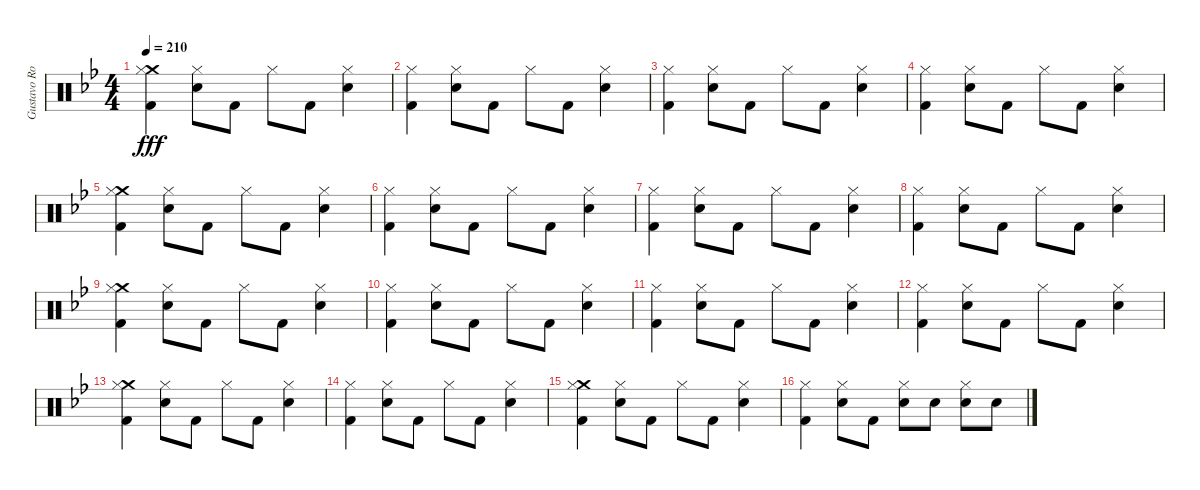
\track ("Gustavo Rowek" "Gustavo Ro") {instrument percussion}
\staff {score}
\articulation defaults
\ts (4 4)
\tempo 210
\clef neutral
\ks gminor
("Crash medium (hit)" "Hi-Hat (closed)" "Kick (hit) 2").4{dy fff} ("Hi-Hat (closed)" "Snare (hit) 2").8 "Kick (hit) 2".8 "Hi-Hat (closed)".8 "Kick (hit) 2".8 ("Hi-Hat (closed)" "Snare (hit) 2").4 |
("Hi-Hat (closed)" "Kick (hit) 2").4 ("Hi-Hat (closed)" "Snare (hit) 2").8 "Kick (hit) 2".8 "Hi-Hat (closed)".8 "Kick (hit) 2".8 ("Hi-Hat (closed)" "Snare (hit) 2").4 |
("Hi-Hat (closed)" "Kick (hit) 2").4 ("Hi-Hat (closed)" "Snare (hit) 2").8 "Kick (hit) 2".8 "Hi-Hat (closed)".8 "Kick (hit) 2".8 ("Hi-Hat (closed)" "Snare (hit) 2").4 |
("Hi-Hat (closed)" "Kick (hit) 2").4 ("Hi-Hat (closed)" "Snare (hit) 2").8 "Kick (hit) 2".8 "Hi-Hat (closed)".8 "Kick (hit) 2".8 ("Hi-Hat (closed)" "Snare (hit) 2").4 |
("Crash medium (hit)" "Hi-Hat (closed)" "Kick (hit) 2").4 ("Hi-Hat (closed)" "Snare (hit) 2").8 "Kick (hit) 2".8 "Hi-Hat (closed)".8 "Kick (hit) 2".8 ("Hi-Hat (closed)" "Snare (hit) 2").4 |
("Hi-Hat (closed)" "Kick (hit) 2").4 ("Hi-Hat (closed)" "Snare (hit) 2").8 "Kick (hit) 2".8 "Hi-Hat (closed)".8 "Kick (hit) 2".8 ("Hi-Hat (closed)" "Snare (hit) 2").4 |
("Hi-Hat (closed)" "Kick (hit) 2").4 ("Hi-Hat (closed)" "Snare (hit) 2").8 "Kick (hit) 2".8 "Hi-Hat (closed)".8 "Kick (hit) 2".8 ("Hi-Hat (closed)" "Snare (hit) 2").4 |
("Hi-Hat (closed)" "Kick (hit) 2").4 ("Hi-Hat (closed)" "Snare (hit) 2").8 "Kick (hit) 2".8 "Hi-Hat (closed)".8 "Kick (hit) 2".8 ("Hi-Hat (closed)" "Snare (hit) 2").4 |
("Crash medium (hit)" "Hi-Hat (closed)" "Kick (hit) 2").4 ("Hi-Hat (closed)" "Snare (hit) 2").8 "Kick (hit) 2".8 "Hi-Hat (closed)".8 "Kick (hit) 2".8 ("Hi-Hat (closed)" "Snare (hit) 2").4 |
("Hi-Hat (closed)" "Kick (hit) 2").4 ("Hi-Hat (closed)" "Snare (hit) 2").8 "Kick (hit) 2".8 "Hi-Hat (closed)".8 "Kick (hit) 2".8 ("Hi-Hat (closed)" "Snare (hit) 2").4 |
("Hi-Hat (closed)" "Kick (hit) 2").4 ("Hi-Hat (closed)" "Snare (hit) 2").8 "Kick (hit) 2".8 "Hi-Hat (closed)".8 "Kick (hit) 2".8 ("Hi-Hat (closed)" "Snare (hit) 2").4 |
("Hi-Hat (closed)" "Kick (hit) 2").4 ("Hi-Hat (closed)" "Snare (hit) 2").8 "Kick (hit) 2".8 "Hi-Hat (closed)".8 "Kick (hit) 2".8 ("Hi-Hat (closed)" "Snare (hit) 2").4 |
("Crash medium (hit)" "Hi-Hat (closed)" "Kick (hit) 2").4 ("Hi-Hat (closed)" "Snare (hit) 2").8 "Kick (hit) 2".8 "Hi-Hat (closed)".8 "Kick (hit) 2".8 ("Hi-Hat (closed)" "Snare (hit) 2").4 |
("Hi-Hat (closed)" "Kick (hit) 2").4 ("Hi-Hat (closed)" "Snare (hit) 2").8 "Kick (hit) 2".8 "Hi-Hat (closed)".8 "Kick (hit) 2".8 ("Hi-Hat (closed)" "Snare (hit) 2").4 |
("Crash medium (hit)" "Hi-Hat (closed)" "Kick (hit) 2").4 ("Hi-Hat (closed)" "Snare (hit) 2").8 "Kick (hit) 2".8 "Hi-Hat (closed)".8 "Kick (hit) 2".8 ("Hi-Hat (closed)" "Snare (hit) 2").4 |
("Hi-Hat (closed)" "Kick (hit) 2").4 ("Hi-Hat (closed)" "Snare (hit) 2").8 "Kick (hit) 2".8 ("Hi-Hat (closed)" "Snare (hit) 2").8 "Snare (hit) 2".8 ("Hi-Hat (closed)" "Snare (hit) 2").8 "Snare (hit) 2".8
